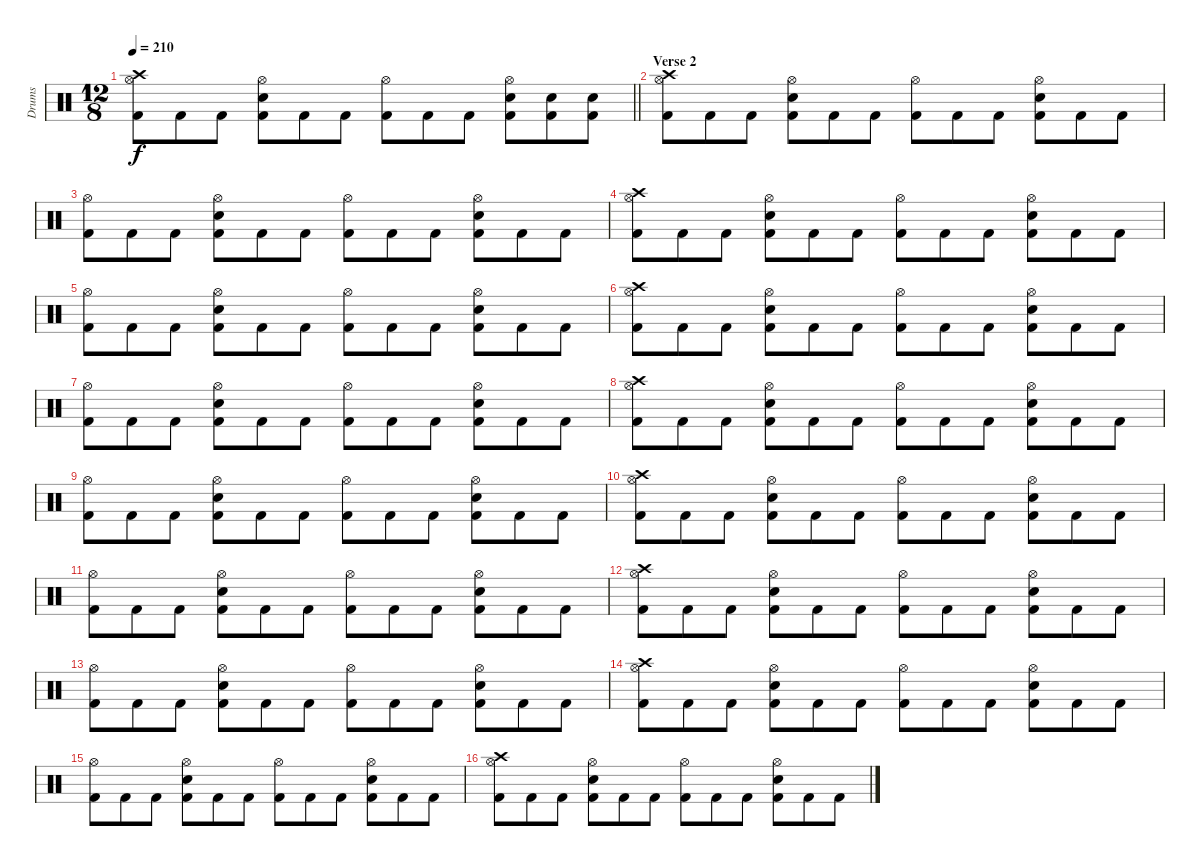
\track ("Drums" "Drums") {instrument percussion}
\staff {score}
\articulation defaults
\ts (12 8)
\tempo 210
\clef neutral
\barLineRight lightlight
\ks c
("Crash high (hit)" "Hi-Hat (open)" "Kick (hit) 2").8{dy f} "Kick (hit) 2".8 "Kick (hit) 2".8 ("Hi-Hat (open)" "Snare (hit) 2" "Kick (hit) 2").8 "Kick (hit) 2".8 "Kick (hit) 2".8 ("Hi-Hat (open)" "Kick (hit) 2").8 "Kick (hit) 2".8 "Kick (hit) 2".8 ("Hi-Hat (open)" "Snare (hit) 2" "Kick (hit) 2").8 ("Snare (hit) 2" "Kick (hit) 2").8 ("Snare (hit) 2" "Kick (hit) 2").8 |
\section ("" "Verse 2")
("Crash high (hit)" "Hi-Hat (open)" "Kick (hit) 2").8 "Kick (hit) 2".8 "Kick (hit) 2".8 ("Hi-Hat (open)" "Snare (hit) 2" "Kick (hit) 2").8 "Kick (hit) 2".8 "Kick (hit) 2".8 ("Hi-Hat (open)" "Kick (hit) 2").8 "Kick (hit) 2".8 "Kick (hit) 2".8 ("Hi-Hat (open)" "Snare (hit) 2" "Kick (hit) 2").8 "Kick (hit) 2".8 "Kick (hit) 2".8 |
("Hi-Hat (open)" "Kick (hit) 2").8 "Kick (hit) 2".8 "Kick (hit) 2".8 ("Hi-Hat (open)" "Snare (hit) 2" "Kick (hit) 2").8 "Kick (hit) 2".8 "Kick (hit) 2".8 ("Hi-Hat (open)" "Kick (hit) 2").8 "Kick (hit) 2".8 "Kick (hit) 2".8 ("Hi-Hat (open)" "Snare (hit) 2" "Kick (hit) 2").8 "Kick (hit) 2".8 "Kick (hit) 2".8 |
("Crash high (hit)" "Hi-Hat (open)" "Kick (hit) 2").8 "Kick (hit) 2".8 "Kick (hit) 2".8 ("Hi-Hat (open)" "Snare (hit) 2" "Kick (hit) 2").8 "Kick (hit) 2".8 "Kick (hit) 2".8 ("Hi-Hat (open)" "Kick (hit) 2").8 "Kick (hit) 2".8 "Kick (hit) 2".8 ("Hi-Hat (open)" "Snare (hit) 2" "Kick (hit) 2").8 "Kick (hit) 2".8 "Kick (hit) 2".8 |
("Hi-Hat (open)" "Kick (hit) 2").8 "Kick (hit) 2".8 "Kick (hit) 2".8 ("Hi-Hat (open)" "Snare (hit) 2" "Kick (hit) 2").8 "Kick (hit) 2".8 "Kick (hit) 2".8 ("Hi-Hat (open)" "Kick (hit) 2").8 "Kick (hit) 2".8 "Kick (hit) 2".8 ("Hi-Hat (open)" "Snare (hit) 2" "Kick (hit) 2").8 "Kick (hit) 2".8 "Kick (hit) 2".8 |
("Crash high (hit)" "Hi-Hat (open)" "Kick (hit) 2").8 "Kick (hit) 2".8 "Kick (hit) 2".8 ("Hi-Hat (open)" "Snare (hit) 2" "Kick (hit) 2").8 "Kick (hit) 2".8 "Kick (hit) 2".8 ("Hi-Hat (open)" "Kick (hit) 2").8 "Kick (hit) 2".8 "Kick (hit) 2".8 ("Hi-Hat (open)" "Snare (hit) 2" "Kick (hit) 2").8 "Kick (hit) 2".8 "Kick (hit) 2".8 |
("Hi-Hat (open)" "Kick (hit) 2").8 "Kick (hit) 2".8 "Kick (hit) 2".8 ("Hi-Hat (open)" "Snare (hit) 2" "Kick (hit) 2").8 "Kick (hit) 2".8 "Kick (hit) 2".8 ("Hi-Hat (open)" "Kick (hit) 2").8 "Kick (hit) 2".8 "Kick (hit) 2".8 ("Hi-Hat (open)" "Snare (hit) 2" "Kick (hit) 2").8 "Kick (hit) 2".8 "Kick (hit) 2".8 |
("Crash high (hit)" "Hi-Hat (open)" "Kick (hit) 2").8 "Kick (hit) 2".8 "Kick (hit) 2".8 ("Hi-Hat (open)" "Snare (hit) 2" "Kick (hit) 2").8 "Kick (hit) 2".8 "Kick (hit) 2".8 ("Hi-Hat (open)" "Kick (hit) 2").8 "Kick (hit) 2".8 "Kick (hit) 2".8 ("Hi-Hat (open)" "Snare (hit) 2" "Kick (hit) 2").8 "Kick (hit) 2".8 "Kick (hit) 2".8 |
("Hi-Hat (open)" "Kick (hit) 2").8 "Kick (hit) 2".8 "Kick (hit) 2".8 ("Hi-Hat (open)" "Snare (hit) 2" "Kick (hit) 2").8 "Kick (hit) 2".8 "Kick (hit) 2".8 ("Hi-Hat (open)" "Kick (hit) 2").8 "Kick (hit) 2".8 "Kick (hit) 2".8 ("Hi-Hat (open)" "Snare (hit) 2" "Kick (hit) 2").8 "Kick (hit) 2".8 "Kick (hit) 2".8 |
("Crash high (hit)" "Hi-Hat (open)" "Kick (hit) 2").8 "Kick (hit) 2".8 "Kick (hit) 2".8 ("Hi-Hat (open)" "Snare (hit) 2" "Kick (hit) 2").8 "Kick (hit) 2".8 "Kick (hit) 2".8 ("Hi-Hat (open)" "Kick (hit) 2").8 "Kick (hit) 2".8 "Kick (hit) 2".8 ("Hi-Hat (open)" "Snare (hit) 2" "Kick (hit) 2").8 "Kick (hit) 2".8 "Kick (hit) 2".8 |
("Hi-Hat (open)" "Kick (hit) 2").8 "Kick (hit) 2".8 "Kick (hit) 2".8 ("Hi-Hat (open)" "Snare (hit) 2" "Kick (hit) 2").8 "Kick (hit) 2".8 "Kick (hit) 2".8 ("Hi-Hat (open)" "Kick (hit) 2").8 "Kick (hit) 2".8 "Kick (hit) 2".8 ("Hi-Hat (open)" "Snare (hit) 2" "Kick (hit) 2").8 "Kick (hit) 2".8 "Kick (hit) 2".8 |
("Crash high (hit)" "Hi-Hat (open)" "Kick (hit) 2").8 "Kick (hit) 2".8 "Kick (hit) 2".8 ("Hi-Hat (open)" "Snare (hit) 2" "Kick (hit) 2").8 "Kick (hit) 2".8 "Kick (hit) 2".8 ("Hi-Hat (open)" "Kick (hit) 2").8 "Kick (hit) 2".8 "Kick (hit) 2".8 ("Hi-Hat (open)" "Snare (hit) 2" "Kick (hit) 2").8 "Kick (hit) 2".8 "Kick (hit) 2".8 |
("Hi-Hat (open)" "Kick (hit) 2").8 "Kick (hit) 2".8 "Kick (hit) 2".8 ("Hi-Hat (open)" "Snare (hit) 2" "Kick (hit) 2").8 "Kick (hit) 2".8 "Kick (hit) 2".8 ("Hi-Hat (open)" "Kick (hit) 2").8 "Kick (hit) 2".8 "Kick (hit) 2".8 ("Hi-Hat (open)" "Snare (hit) 2" "Kick (hit) 2").8 "Kick (hit) 2".8 "Kick (hit) 2".8 |
("Crash high (hit)" "Hi-Hat (open)" "Kick (hit) 2").8 "Kick (hit) 2".8 "Kick (hit) 2".8 ("Hi-Hat (open)" "Snare (hit) 2" "Kick (hit) 2").8 "Kick (hit) 2".8 "Kick (hit) 2".8 ("Hi-Hat (open)" "Kick (hit) 2").8 "Kick (hit) 2".8 "Kick (hit) 2".8 ("Hi-Hat (open)" "Snare (hit) 2" "Kick (hit) 2").8 "Kick (hit) 2".8 "Kick (hit) 2".8 |
("Hi-Hat (open)" "Kick (hit) 2").8 "Kick (hit) 2".8 "Kick (hit) 2".8 ("Hi-Hat (open)" "Snare (hit) 2" "Kick (hit) 2").8 "Kick (hit) 2".8 "Kick (hit) 2".8 ("Hi-Hat (open)" "Kick (hit) 2").8 "Kick (hit) 2".8 "Kick (hit) 2".8 ("Hi-Hat (open)" "Snare (hit) 2" "Kick (hit) 2").8 "Kick (hit) 2".8 "Kick (hit) 2".8 |
("Crash high (hit)" "Hi-Hat (open)" "Kick (hit) 2").8 "Kick (hit) 2".8 "Kick (hit) 2".8 ("Hi-Hat (open)" "Snare (hit) 2" "Kick (hit) 2").8 "Kick (hit) 2".8 "Kick (hit) 2".8 ("Hi-Hat (open)" "Kick (hit) 2").8 "Kick (hit) 2".8 "Kick (hit) 2".8 ("Hi-Hat (open)" "Snare (hit) 2" "Kick (hit) 2").8 "Kick (hit) 2".8 "Kick (hit) 2".8
